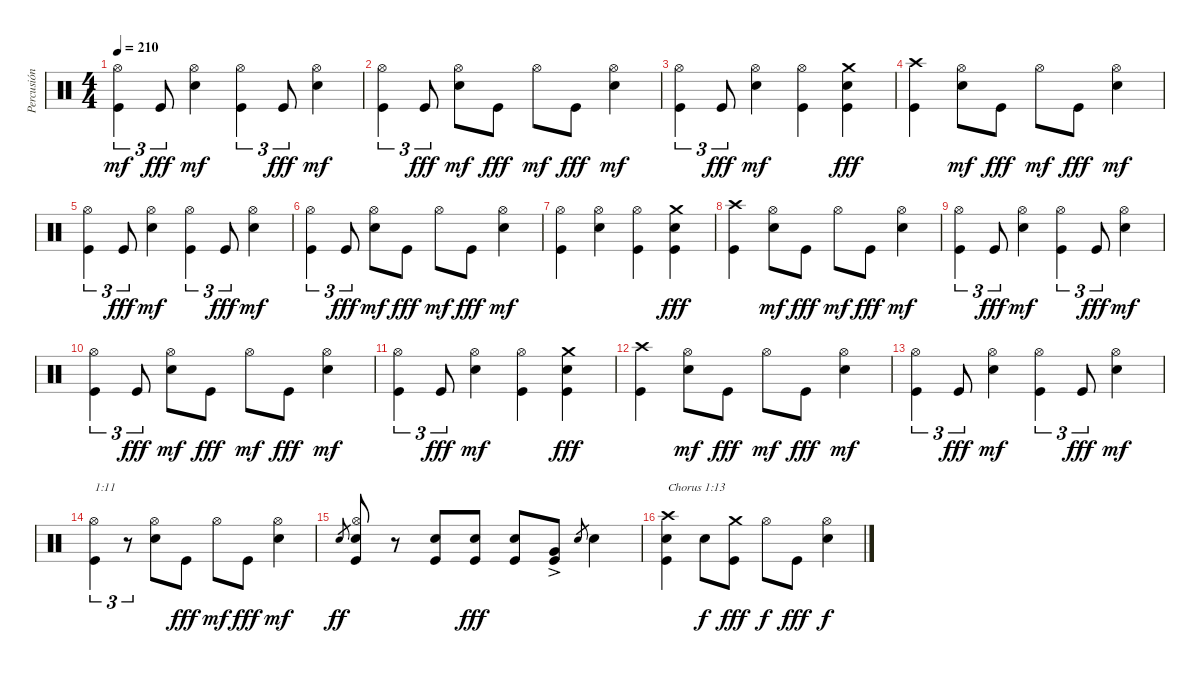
\track ("Percusión" "Percusión") {instrument percussion}
\staff {score}
\articulation defaults
\ts (4 4)
\tempo 210
\clef neutral
\ks c
("Kick (hit)" "Hi-Hat (open)").4{tu (3 2) dy mf} "Kick (hit)".8{tu (3 2) dy fff} ("Electric Snare (hit)" "Hi-Hat (open)").4{dy mf} ("Kick (hit)" "Hi-Hat (open)").4{tu (3 2)} "Kick (hit)".8{tu (3 2) dy fff} ("Electric Snare (hit)" "Hi-Hat (open)").4{dy mf} |
("Kick (hit)" "Hi-Hat (open)").4{tu (3 2)} "Kick (hit)".8{tu (3 2) dy fff} ("Electric Snare (hit)" "Hi-Hat (open)").8{dy mf} "Kick (hit)".8{dy fff} "Hi-Hat (open)".8{dy mf} "Kick (hit)".8{dy fff} ("Electric Snare (hit)" "Hi-Hat (open)").4{dy mf} |
("Kick (hit)" "Hi-Hat (open)").4{tu (3 2)} "Kick (hit)".8{tu (3 2) dy fff} ("Electric Snare (hit)" "Hi-Hat (open)").4{dy mf} ("Kick (hit)" "Hi-Hat (open)").4 ("Kick (hit)" "Electric Snare (hit)" "Crash medium (hit)").4{dy fff} |
("Kick (hit)" "Crash high (hit)").4 ("Electric Snare (hit)" "Hi-Hat (open)").8{dy mf} "Kick (hit)".8{dy fff} "Hi-Hat (open)".8{dy mf} "Kick (hit)".8{dy fff} ("Electric Snare (hit)" "Hi-Hat (open)").4{dy mf} |
("Kick (hit)" "Hi-Hat (open)").4{tu (3 2)} "Kick (hit)".8{tu (3 2) dy fff} ("Electric Snare (hit)" "Hi-Hat (open)").4{dy mf} ("Kick (hit)" "Hi-Hat (open)").4{tu (3 2)} "Kick (hit)".8{tu (3 2) dy fff} ("Electric Snare (hit)" "Hi-Hat (open)").4{dy mf} |
("Kick (hit)" "Hi-Hat (open)").4{tu (3 2)} "Kick (hit)".8{tu (3 2) dy fff} ("Electric Snare (hit)" "Hi-Hat (open)").8{dy mf} "Kick (hit)".8{dy fff} "Hi-Hat (open)".8{dy mf} "Kick (hit)".8{dy fff} ("Electric Snare (hit)" "Hi-Hat (open)").4{dy mf} |
("Kick (hit)" "Hi-Hat (open)").4 ("Electric Snare (hit)" "Hi-Hat (open)").4 ("Kick (hit)" "Hi-Hat (open)").4 ("Kick (hit)" "Electric Snare (hit)" "Crash medium (hit)").4{dy fff} |
("Kick (hit)" "Crash high (hit)").4 ("Electric Snare (hit)" "Hi-Hat (open)").8{dy mf} "Kick (hit)".8{dy fff} "Hi-Hat (open)".8{dy mf} "Kick (hit)".8{dy fff} ("Electric Snare (hit)" "Hi-Hat (open)").4{dy mf} |
("Kick (hit)" "Hi-Hat (open)").4{tu (3 2)} "Kick (hit)".8{tu (3 2) dy fff} ("Electric Snare (hit)" "Hi-Hat (open)").4{dy mf} ("Kick (hit)" "Hi-Hat (open)").4{tu (3 2)} "Kick (hit)".8{tu (3 2) dy fff} ("Electric Snare (hit)" "Hi-Hat (open)").4{dy mf} |
("Kick (hit)" "Hi-Hat (open)").4{tu (3 2)} "Kick (hit)".8{tu (3 2) dy fff} ("Electric Snare (hit)" "Hi-Hat (open)").8{dy mf} "Kick (hit)".8{dy fff} "Hi-Hat (open)".8{dy mf} "Kick (hit)".8{dy fff} ("Electric Snare (hit)" "Hi-Hat (open)").4{dy mf} |
("Kick (hit)" "Hi-Hat (open)").4{tu (3 2)} "Kick (hit)".8{tu (3 2) dy fff} ("Electric Snare (hit)" "Hi-Hat (open)").4{dy mf} ("Kick (hit)" "Hi-Hat (open)").4 ("Kick (hit)" "Electric Snare (hit)" "Crash medium (hit)").4{dy fff} |
("Kick (hit)" "Crash high (hit)").4 ("Electric Snare (hit)" "Hi-Hat (open)").8{dy mf} "Kick (hit)".8{dy fff} "Hi-Hat (open)".8{dy mf} "Kick (hit)".8{dy fff} ("Electric Snare (hit)" "Hi-Hat (open)").4{dy mf} |
("Kick (hit)" "Hi-Hat (open)").4{tu (3 2)} "Kick (hit)".8{tu (3 2) dy fff} ("Electric Snare (hit)" "Hi-Hat (open)").4{dy mf} ("Kick (hit)" "Hi-Hat (open)").4{tu (3 2)} "Kick (hit)".8{tu (3 2) dy fff} ("Electric Snare (hit)" "Hi-Hat (open)").4{dy mf} |
("Kick (hit)" "Hi-Hat (open)").4{tu (3 2) txt "1:11"} r.8{tu (3 2)} ("Electric Snare (hit)" "Hi-Hat (open)").8 "Kick (hit)".8{dy fff} "Hi-Hat (open)".8{dy mf} "Kick (hit)".8{dy fff} ("Electric Snare (hit)" "Hi-Hat (open)").4{dy mf} |
"Electric Snare (hit)".8{gr dy ff} ("Kick (hit)" "Electric Snare (hit)" "Hi-Hat (open)").8 r.8 ("Kick (hit)" "Electric Snare (hit)").8 ("Kick (hit)" "Electric Snare (hit)").8{dy fff} ("Kick (hit)" "Electric Snare (hit)").8 ("Kick (hit)" "Very Low Tom (hit)"{ac}).8 "Electric Snare (hit)".8{gr} "Electric Snare (hit)".4 |
("Kick (hit)" "Electric Snare (hit)" "Crash high (hit)").4{txt "Chorus 1:13"} "Electric Snare (hit)".8{dy f} ("Kick (hit)" "Crash medium (hit)").8{dy fff} "Hi-Hat (open)".8{dy f} "Kick (hit)".8{dy fff} ("Electric Snare (hit)" "Hi-Hat (open)").4{dy f}
